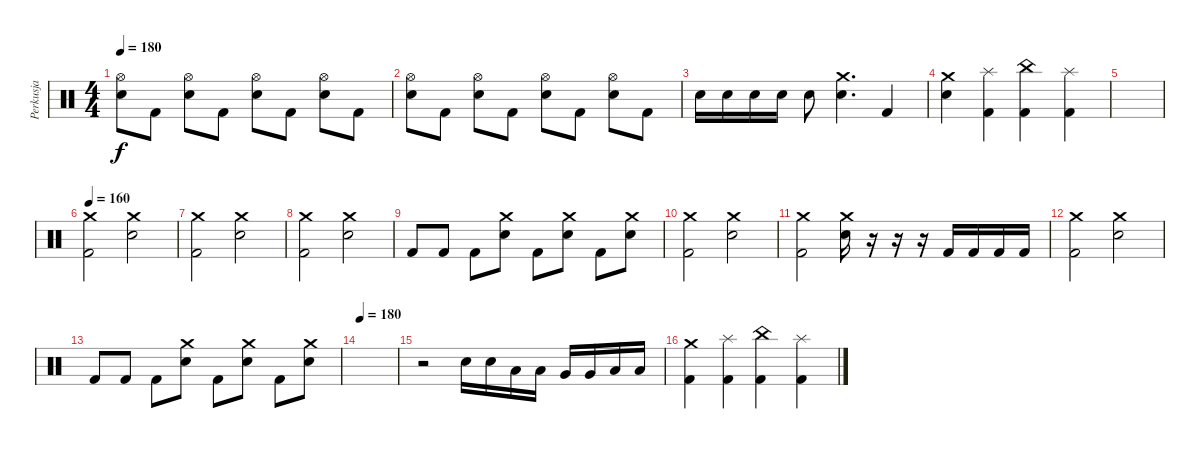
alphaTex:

\track ("Perkusja" "Perkusja") {instrument percussion}
\staff {score}
\articulation defaults
\ts (4 4)
\tempo 180
\clef neutral
\ks c
("Hi-Hat (open)" "Electric Snare (hit)").8{dy f} "Kick (hit) 2".8 ("Hi-Hat (open)" "Electric Snare (hit)").8 "Kick (hit) 2".8 ("Hi-Hat (open)" "Electric Snare (hit)").8 "Kick (hit) 2".8 ("Hi-Hat (open)" "Electric Snare (hit)").8 "Kick (hit) 2".8 |
("Hi-Hat (open)" "Electric Snare (hit)").8 "Kick (hit) 2".8 ("Hi-Hat (open)" "Electric Snare (hit)").8 "Kick (hit) 2".8 ("Hi-Hat (open)" "Electric Snare (hit)").8 "Kick (hit) 2".8 ("Hi-Hat (open)" "Electric Snare (hit)").8 "Kick (hit) 2".8 |
"Electric Snare (hit)".16 "Electric Snare (hit)".16 "Electric Snare (hit)".16 "Electric Snare (hit)".16 "Electric Snare (hit)".8 ("Crash medium (hit)" "Electric Snare (hit)").4{d} "Kick (hit) 2".4 |
("Crash medium (hit)" "Electric Snare (hit)").4 ("Splash (hit)" "Kick (hit) 2").4 ("China (hit)" "Kick (hit) 2").4 ("Splash (hit)" "Kick (hit) 2").4 |
|
\tempo 160
("Crash medium (hit)" "Kick (hit) 2").2 ("Crash medium (hit)" "Electric Snare (hit)").2 |
("Crash medium (hit)" "Kick (hit) 2").2 ("Crash medium (hit)" "Electric Snare (hit)").2 |
("Crash medium (hit)" "Kick (hit) 2").2 ("Crash medium (hit)" "Electric Snare (hit)").2 |
"Kick (hit) 2".8 "Kick (hit) 2".8 "Kick (hit) 2".8 ("Crash medium (hit)" "Electric Snare (hit)").8 "Kick (hit) 2".8 ("Crash medium (hit)" "Electric Snare (hit)").8 "Kick (hit) 2".8 ("Crash medium (hit)" "Electric Snare (hit)").8 |
("Crash medium (hit)" "Kick (hit) 2").2 ("Crash medium (hit)" "Electric Snare (hit)").2 |
("Crash medium (hit)" "Kick (hit) 2").2 ("Crash medium (hit)" "Electric Snare (hit)").16 r.16 r.16 r.16 "Kick (hit) 2".16 "Kick (hit) 2".16 "Kick (hit) 2".16 "Kick (hit) 2".16 |
("Crash medium (hit)" "Kick (hit) 2").2 ("Crash medium (hit)" "Electric Snare (hit)").2 |
"Kick (hit) 2".8 "Kick (hit) 2".8 "Kick (hit) 2".8 ("Crash medium (hit)" "Electric Snare (hit)").8 "Kick (hit) 2".8 ("Crash medium (hit)" "Electric Snare (hit)").8 "Kick (hit) 2".8 ("Crash medium (hit)" "Electric Snare (hit)").8 |
\tempo 180
|
r.2 "Electric Snare (hit)".16 "Electric Snare (hit)".16 "Low Tom (hit)".16 "Low Tom (hit)".16 "Very Low Tom (hit)".16 "Very Low Tom (hit)".16 "Low Floor Tom (hit)".16 "Low Floor Tom (hit)".16 |
("Crash medium (hit)" "Kick (hit) 2").4 ("Splash (hit)" "Kick (hit) 2").4 ("China (hit)" "Kick (hit) 2").4 ("Splash (hit)" "Kick (hit) 2").4
